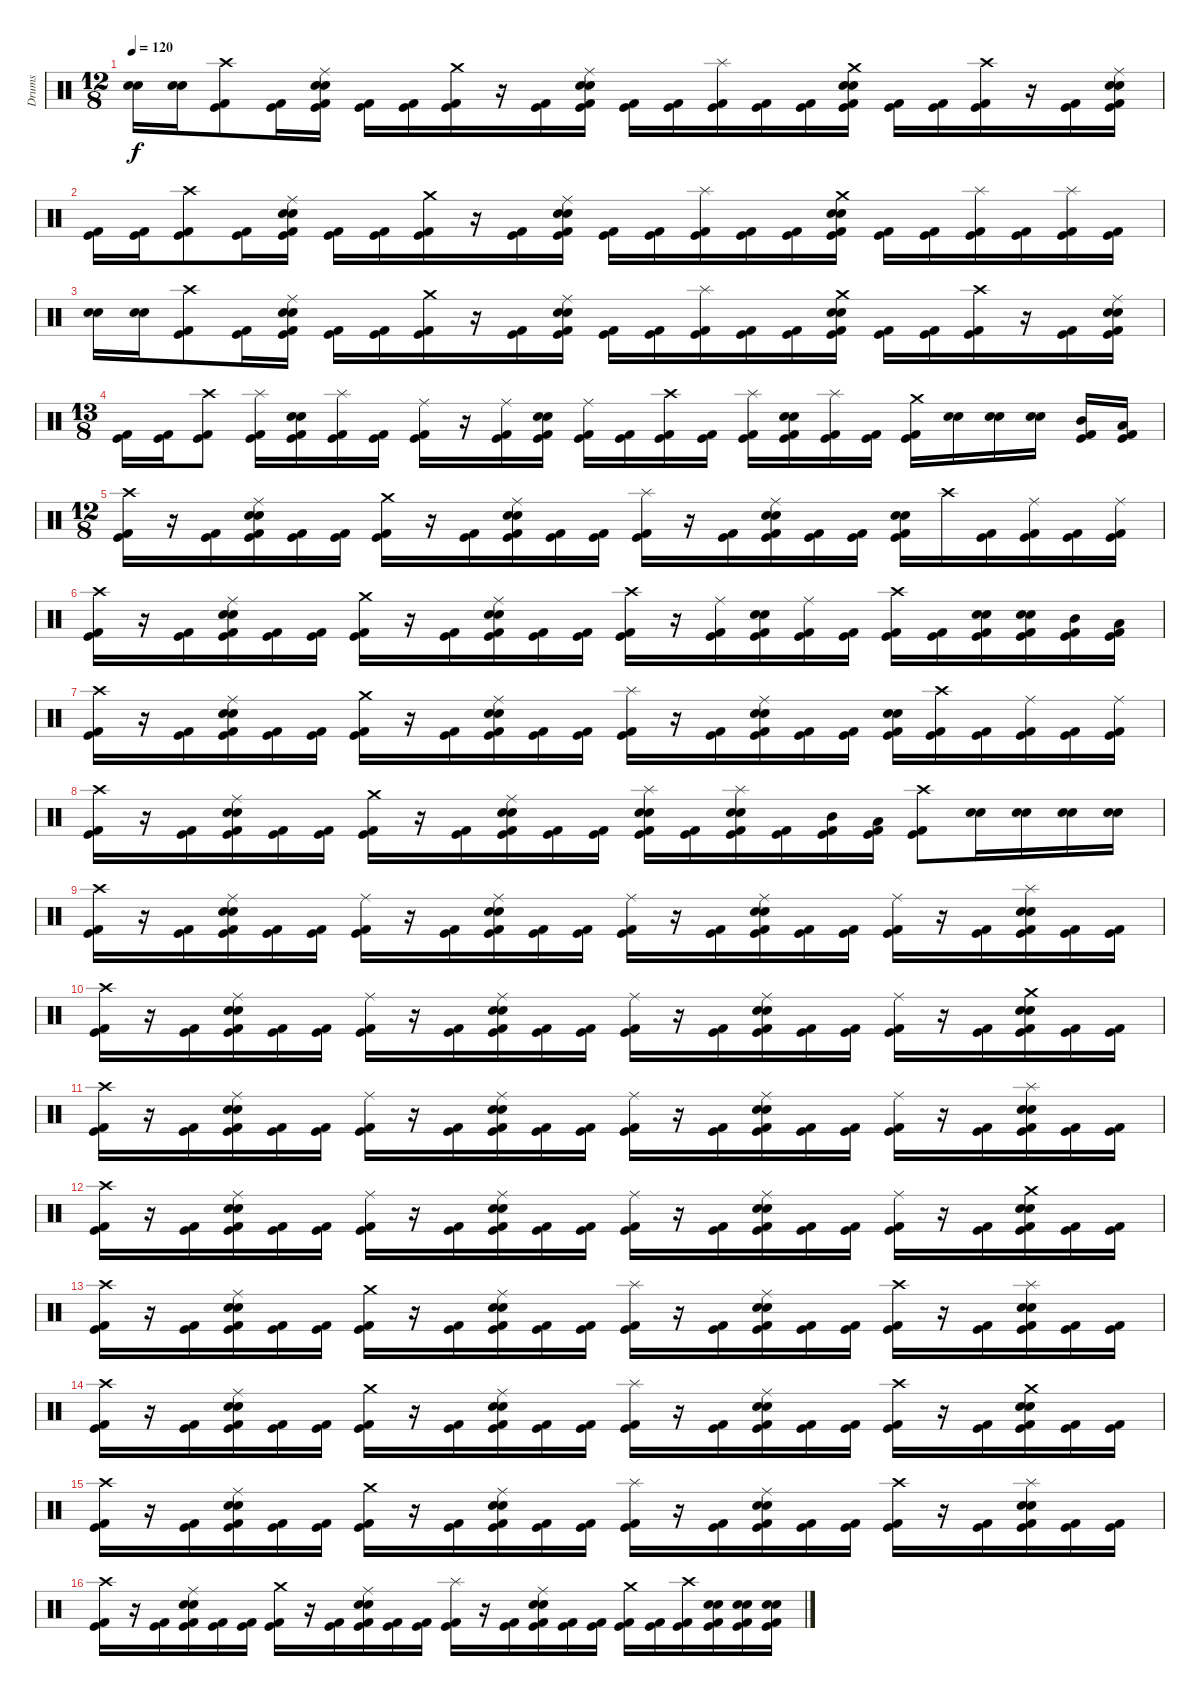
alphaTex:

\track ("Drums" "Drums") {instrument percussion}
\staff {score}
\articulation defaults
\ts (12 8)
\tempo 120
\clef neutral
\ks c
("Electric Snare (hit)" "Snare (hit) 2").16{dy f} ("Electric Snare (hit)" "Snare (hit) 2").16 ("Crash high (hit)" "Kick (hit) 2" "Kick (hit)").8 ("Kick (hit) 2" "Kick (hit)").16 ("Ride (middle)" "Electric Snare (hit)" "Snare (hit) 2" "Kick (hit) 2" "Kick (hit)").16 ("Kick (hit) 2" "Kick (hit)").16 ("Kick (hit) 2" "Kick (hit)").16 ("Crash medium (hit)" "Kick (hit) 2" "Kick (hit)").16 r.16 ("Kick (hit) 2" "Kick (hit)").16 ("Ride (middle)" "Electric Snare (hit)" "Snare (hit) 2" "Kick (hit) 2" "Kick (hit)").16 ("Kick (hit) 2" "Kick (hit)").16 ("Kick (hit) 2" "Kick (hit)").16 ("Splash (hit)" "Kick (hit) 2" "Kick (hit)").16 ("Kick (hit) 2" "Kick (hit)").16 ("Kick (hit) 2" "Kick (hit)").16 ("Crash medium (hit)" "Electric Snare (hit)" "Snare (hit) 2" "Kick (hit) 2" "Kick (hit)").16 ("Kick (hit) 2" "Kick (hit)").16 ("Kick (hit) 2" "Kick (hit)").16 ("Crash high (hit)" "Kick (hit) 2" "Kick (hit)").16 r.16 ("Kick (hit) 2" "Kick (hit)").16 ("Ride (middle)" "Electric Snare (hit)" "Snare (hit) 2" "Kick (hit) 2" "Kick (hit)").16 |
("Kick (hit) 2" "Kick (hit)").16 ("Kick (hit) 2" "Kick (hit)").16 ("Crash high (hit)" "Kick (hit) 2" "Kick (hit)").8 ("Kick (hit) 2" "Kick (hit)").16 ("Ride (middle)" "Electric Snare (hit)" "Snare (hit) 2" "Kick (hit) 2" "Kick (hit)").16 ("Kick (hit) 2" "Kick (hit)").16 ("Kick (hit) 2" "Kick (hit)").16 ("Crash medium (hit)" "Kick (hit) 2" "Kick (hit)").16 r.16 ("Kick (hit) 2" "Kick (hit)").16 ("Ride (middle)" "Electric Snare (hit)" "Snare (hit) 2" "Kick (hit) 2" "Kick (hit)").16 ("Kick (hit) 2" "Kick (hit)").16 ("Kick (hit) 2" "Kick (hit)").16 ("Splash (hit)" "Kick (hit) 2" "Kick (hit)").16 ("Kick (hit) 2" "Kick (hit)").16 ("Kick (hit) 2" "Kick (hit)").16 ("Crash medium (hit)" "Electric Snare (hit)" "Snare (hit) 2" "Kick (hit) 2" "Kick (hit)").16 ("Kick (hit) 2" "Kick (hit)").16 ("Kick (hit) 2" "Kick (hit)").16 ("Splash (hit)" "Kick (hit) 2" "Kick (hit)").16 ("Kick (hit) 2" "Kick (hit)").16 ("Splash (hit)" "Kick (hit) 2" "Kick (hit)").16 ("Kick (hit) 2" "Kick (hit)").16 |
("Electric Snare (hit)" "Snare (hit) 2").16 ("Electric Snare (hit)" "Snare (hit) 2").16 ("Crash high (hit)" "Kick (hit) 2" "Kick (hit)").8 ("Kick (hit) 2" "Kick (hit)").16 ("Ride (middle)" "Electric Snare (hit)" "Snare (hit) 2" "Kick (hit) 2" "Kick (hit)").16 ("Kick (hit) 2" "Kick (hit)").16 ("Kick (hit) 2" "Kick (hit)").16 ("Crash medium (hit)" "Kick (hit) 2" "Kick (hit)").16 r.16 ("Kick (hit) 2" "Kick (hit)").16 ("Ride (middle)" "Electric Snare (hit)" "Snare (hit) 2" "Kick (hit) 2" "Kick (hit)").16 ("Kick (hit) 2" "Kick (hit)").16 ("Kick (hit) 2" "Kick (hit)").16 ("Splash (hit)" "Kick (hit) 2" "Kick (hit)").16 ("Kick (hit) 2" "Kick (hit)").16 ("Kick (hit) 2" "Kick (hit)").16 ("Crash medium (hit)" "Electric Snare (hit)" "Snare (hit) 2" "Kick (hit) 2" "Kick (hit)").16 ("Kick (hit) 2" "Kick (hit)").16 ("Kick (hit) 2" "Kick (hit)").16 ("Crash high (hit)" "Kick (hit) 2" "Kick (hit)").16 r.16 ("Kick (hit) 2" "Kick (hit)").16 ("Ride (middle)" "Electric Snare (hit)" "Snare (hit) 2" "Kick (hit) 2" "Kick (hit)").16 |
\ts (13 8)
("Kick (hit) 2" "Kick (hit)").16 ("Kick (hit) 2" "Kick (hit)").16 ("Crash high (hit)" "Kick (hit) 2" "Kick (hit)").8 ("Splash (hit)" "Kick (hit) 2" "Kick (hit)").16 ("Electric Snare (hit)" "Snare (hit) 2" "Kick (hit) 2" "Kick (hit)").16 ("Splash (hit)" "Kick (hit) 2" "Kick (hit)").16 ("Kick (hit) 2" "Kick (hit)").16 ("Ride (middle)" "Kick (hit) 2" "Kick (hit)").16 r.16 ("Ride (middle)" "Kick (hit) 2" "Kick (hit)").16 ("Electric Snare (hit)" "Snare (hit) 2" "Kick (hit) 2" "Kick (hit)").16 ("Ride (middle)" "Kick (hit) 2" "Kick (hit)").16 ("Kick (hit) 2" "Kick (hit)").16 ("Crash high (hit)" "Kick (hit) 2" "Kick (hit)").16 ("Kick (hit) 2" "Kick (hit)").16 ("Splash (hit)" "Kick (hit) 2" "Kick (hit)").16 ("Electric Snare (hit)" "Snare (hit) 2" "Kick (hit) 2" "Kick (hit)").16 ("Splash (hit)" "Kick (hit) 2" "Kick (hit)").16 ("Kick (hit) 2" "Kick (hit)").16 ("Crash medium (hit)" "Kick (hit) 2" "Kick (hit)").16 ("Electric Snare (hit)" "Snare (hit) 2").16 ("Electric Snare (hit)" "Snare (hit) 2").16 ("Electric Snare (hit)" "Snare (hit) 2").16 ("Mid Tom (hit)" "Kick (hit) 2" "Kick (hit)").16 ("Low Tom (hit)" "Kick (hit) 2" "Kick (hit)").16 |
\ts (12 8)
("Crash high (hit)" "Kick (hit) 2" "Kick (hit)").16 r.16 ("Kick (hit) 2" "Kick (hit)").16 ("Ride (middle)" "Electric Snare (hit)" "Snare (hit) 2" "Kick (hit) 2" "Kick (hit)").16 ("Kick (hit) 2" "Kick (hit)").16 ("Kick (hit) 2" "Kick (hit)").16 ("Crash medium (hit)" "Kick (hit) 2" "Kick (hit)").16 r.16 ("Kick (hit) 2" "Kick (hit)").16 ("Ride (middle)" "Electric Snare (hit)" "Snare (hit) 2" "Kick (hit) 2" "Kick (hit)").16 ("Kick (hit) 2" "Kick (hit)").16 ("Kick (hit) 2" "Kick (hit)").16 ("Splash (hit)" "Kick (hit) 2" "Kick (hit)").16 r.16 ("Kick (hit) 2" "Kick (hit)").16 ("Ride (middle)" "Electric Snare (hit)" "Snare (hit) 2" "Kick (hit) 2" "Kick (hit)").16 ("Kick (hit) 2" "Kick (hit)").16 ("Kick (hit) 2" "Kick (hit)").16 ("Electric Snare (hit)" "Snare (hit) 2" "Kick (hit) 2" "Kick (hit)").16 "Crash high (hit)".16 ("Kick (hit) 2" "Kick (hit)").16 ("Ride (middle)" "Kick (hit) 2" "Kick (hit)").16 ("Kick (hit) 2" "Kick (hit)").16 ("Ride (middle)" "Kick (hit) 2" "Kick (hit)").16 |
("Crash high (hit)" "Kick (hit) 2" "Kick (hit)").16 r.16 ("Kick (hit) 2" "Kick (hit)").16 ("Ride (middle)" "Electric Snare (hit)" "Snare (hit) 2" "Kick (hit) 2" "Kick (hit)").16 ("Kick (hit) 2" "Kick (hit)").16 ("Kick (hit) 2" "Kick (hit)").16 ("Crash medium (hit)" "Kick (hit) 2" "Kick (hit)").16 r.16 ("Kick (hit) 2" "Kick (hit)").16 ("Ride (middle)" "Electric Snare (hit)" "Snare (hit) 2" "Kick (hit) 2" "Kick (hit)").16 ("Kick (hit) 2" "Kick (hit)").16 ("Kick (hit) 2" "Kick (hit)").16 ("Crash high (hit)" "Kick (hit) 2" "Kick (hit)").16 r.16 ("Ride (middle)" "Kick (hit) 2" "Kick (hit)").16 ("Electric Snare (hit)" "Snare (hit) 2" "Kick (hit) 2" "Kick (hit)").16 ("Ride (middle)" "Kick (hit) 2" "Kick (hit)").16 ("Kick (hit) 2" "Kick (hit)").16 ("Crash high (hit)" "Kick (hit) 2" "Kick (hit)").16 ("Kick (hit) 2" "Kick (hit)").16 ("Electric Snare (hit)" "Snare (hit) 2" "Kick (hit) 2" "Kick (hit)").16 ("Electric Snare (hit)" "Snare (hit) 2" "Kick (hit) 2" "Kick (hit)").16 ("Mid Tom (hit)" "Kick (hit) 2" "Kick (hit)").16 ("Low Tom (hit)" "Kick (hit) 2" "Kick (hit)").16 |
("Crash high (hit)" "Kick (hit) 2" "Kick (hit)").16 r.16 ("Kick (hit) 2" "Kick (hit)").16 ("Ride (middle)" "Electric Snare (hit)" "Snare (hit) 2" "Kick (hit) 2" "Kick (hit)").16 ("Kick (hit) 2" "Kick (hit)").16 ("Kick (hit) 2" "Kick (hit)").16 ("Crash medium (hit)" "Kick (hit) 2" "Kick (hit)").16 r.16 ("Kick (hit) 2" "Kick (hit)").16 ("Ride (middle)" "Electric Snare (hit)" "Snare (hit) 2" "Kick (hit) 2" "Kick (hit)").16 ("Kick (hit) 2" "Kick (hit)").16 ("Kick (hit) 2" "Kick (hit)").16 ("Splash (hit)" "Kick (hit) 2" "Kick (hit)").16 r.16 ("Kick (hit) 2" "Kick (hit)").16 ("Ride (middle)" "Electric Snare (hit)" "Snare (hit) 2" "Kick (hit) 2" "Kick (hit)").16 ("Kick (hit) 2" "Kick (hit)").16 ("Kick (hit) 2" "Kick (hit)").16 ("Electric Snare (hit)" "Snare (hit) 2" "Kick (hit) 2" "Kick (hit)").16 ("Crash high (hit)" "Kick (hit) 2" "Kick (hit)").16 ("Kick (hit) 2" "Kick (hit)").16 ("Ride (middle)" "Kick (hit) 2" "Kick (hit)").16 ("Kick (hit) 2" "Kick (hit)").16 ("Ride (middle)" "Kick (hit) 2" "Kick (hit)").16 |
("Crash high (hit)" "Kick (hit) 2" "Kick (hit)").16 r.16 ("Kick (hit) 2" "Kick (hit)").16 ("Ride (middle)" "Electric Snare (hit)" "Snare (hit) 2" "Kick (hit) 2" "Kick (hit)").16 ("Kick (hit) 2" "Kick (hit)").16 ("Kick (hit) 2" "Kick (hit)").16 ("Crash medium (hit)" "Kick (hit) 2" "Kick (hit)").16 r.16 ("Kick (hit) 2" "Kick (hit)").16 ("Ride (middle)" "Electric Snare (hit)" "Snare (hit) 2" "Kick (hit) 2" "Kick (hit)").16 ("Kick (hit) 2" "Kick (hit)").16 ("Kick (hit) 2" "Kick (hit)").16 ("Electric Snare (hit)" "Snare (hit) 2" "Splash (hit)" "Kick (hit) 2" "Kick (hit)").16 ("Kick (hit) 2" "Kick (hit)").16 ("Electric Snare (hit)" "Snare (hit) 2" "Splash (hit)" "Kick (hit) 2" "Kick (hit)").16 ("Kick (hit) 2" "Kick (hit)").16 ("Mid Tom (hit)" "Kick (hit) 2" "Kick (hit)").16 ("Low Tom (hit)" "Kick (hit) 2" "Kick (hit)").16 ("Crash high (hit)" "Kick (hit) 2" "Kick (hit)").8 ("Electric Snare (hit)" "Snare (hit) 2").16 ("Electric Snare (hit)" "Snare (hit) 2").16 ("Electric Snare (hit)" "Snare (hit) 2").16 ("Electric Snare (hit)" "Snare (hit) 2").16 |
("Crash high (hit)" "Kick (hit) 2" "Kick (hit)").16 r.16 ("Kick (hit) 2" "Kick (hit)").16 ("Ride (middle)" "Electric Snare (hit)" "Snare (hit) 2" "Kick (hit) 2" "Kick (hit)").16 ("Kick (hit) 2" "Kick (hit)").16 ("Kick (hit) 2" "Kick (hit)").16 ("Ride (middle)" "Kick (hit) 2" "Kick (hit)").16 r.16 ("Kick (hit) 2" "Kick (hit)").16 ("Ride (middle)" "Electric Snare (hit)" "Snare (hit) 2" "Kick (hit) 2" "Kick (hit)").16 ("Kick (hit) 2" "Kick (hit)").16 ("Kick (hit) 2" "Kick (hit)").16 ("Ride (middle)" "Kick (hit) 2" "Kick (hit)").16 r.16 ("Kick (hit) 2" "Kick (hit)").16 ("Ride (middle)" "Electric Snare (hit)" "Snare (hit) 2" "Kick (hit) 2" "Kick (hit)").16 ("Kick (hit) 2" "Kick (hit)").16 ("Kick (hit) 2" "Kick (hit)").16 ("Ride (middle)" "Kick (hit) 2" "Kick (hit)").16 r.16 ("Kick (hit) 2" "Kick (hit)").16 ("Splash (hit)" "Electric Snare (hit)" "Snare (hit) 2" "Kick (hit) 2" "Kick (hit)").16 ("Kick (hit) 2" "Kick (hit)").16 ("Kick (hit) 2" "Kick (hit)").16 |
("Crash high (hit)" "Kick (hit) 2" "Kick (hit)").16 r.16 ("Kick (hit) 2" "Kick (hit)").16 ("Ride (middle)" "Electric Snare (hit)" "Snare (hit) 2" "Kick (hit) 2" "Kick (hit)").16 ("Kick (hit) 2" "Kick (hit)").16 ("Kick (hit) 2" "Kick (hit)").16 ("Ride (middle)" "Kick (hit) 2" "Kick (hit)").16 r.16 ("Kick (hit) 2" "Kick (hit)").16 ("Ride (middle)" "Electric Snare (hit)" "Snare (hit) 2" "Kick (hit) 2" "Kick (hit)").16 ("Kick (hit) 2" "Kick (hit)").16 ("Kick (hit) 2" "Kick (hit)").16 ("Ride (middle)" "Kick (hit) 2" "Kick (hit)").16 r.16 ("Kick (hit) 2" "Kick (hit)").16 ("Ride (middle)" "Electric Snare (hit)" "Snare (hit) 2" "Kick (hit) 2" "Kick (hit)").16 ("Kick (hit) 2" "Kick (hit)").16 ("Kick (hit) 2" "Kick (hit)").16 ("Ride (middle)" "Kick (hit) 2" "Kick (hit)").16 r.16 ("Kick (hit) 2" "Kick (hit)").16 ("Crash medium (hit)" "Electric Snare (hit)" "Snare (hit) 2" "Kick (hit) 2" "Kick (hit)").16 ("Kick (hit) 2" "Kick (hit)").16 ("Kick (hit) 2" "Kick (hit)").16 |
("Crash high (hit)" "Kick (hit) 2" "Kick (hit)").16 r.16 ("Kick (hit) 2" "Kick (hit)").16 ("Ride (middle)" "Electric Snare (hit)" "Snare (hit) 2" "Kick (hit) 2" "Kick (hit)").16 ("Kick (hit) 2" "Kick (hit)").16 ("Kick (hit) 2" "Kick (hit)").16 ("Ride (middle)" "Kick (hit) 2" "Kick (hit)").16 r.16 ("Kick (hit) 2" "Kick (hit)").16 ("Ride (middle)" "Electric Snare (hit)" "Snare (hit) 2" "Kick (hit) 2" "Kick (hit)").16 ("Kick (hit) 2" "Kick (hit)").16 ("Kick (hit) 2" "Kick (hit)").16 ("Ride (middle)" "Kick (hit) 2" "Kick (hit)").16 r.16 ("Kick (hit) 2" "Kick (hit)").16 ("Ride (middle)" "Electric Snare (hit)" "Snare (hit) 2" "Kick (hit) 2" "Kick (hit)").16 ("Kick (hit) 2" "Kick (hit)").16 ("Kick (hit) 2" "Kick (hit)").16 ("Ride (middle)" "Kick (hit) 2" "Kick (hit)").16 r.16 ("Kick (hit) 2" "Kick (hit)").16 ("Splash (hit)" "Electric Snare (hit)" "Snare (hit) 2" "Kick (hit) 2" "Kick (hit)").16 ("Kick (hit) 2" "Kick (hit)").16 ("Kick (hit) 2" "Kick (hit)").16 |
("Crash high (hit)" "Kick (hit) 2" "Kick (hit)").16 r.16 ("Kick (hit) 2" "Kick (hit)").16 ("Ride (middle)" "Electric Snare (hit)" "Snare (hit) 2" "Kick (hit) 2" "Kick (hit)").16 ("Kick (hit) 2" "Kick (hit)").16 ("Kick (hit) 2" "Kick (hit)").16 ("Ride (middle)" "Kick (hit) 2" "Kick (hit)").16 r.16 ("Kick (hit) 2" "Kick (hit)").16 ("Ride (middle)" "Electric Snare (hit)" "Snare (hit) 2" "Kick (hit) 2" "Kick (hit)").16 ("Kick (hit) 2" "Kick (hit)").16 ("Kick (hit) 2" "Kick (hit)").16 ("Ride (middle)" "Kick (hit) 2" "Kick (hit)").16 r.16 ("Kick (hit) 2" "Kick (hit)").16 ("Ride (middle)" "Electric Snare (hit)" "Snare (hit) 2" "Kick (hit) 2" "Kick (hit)").16 ("Kick (hit) 2" "Kick (hit)").16 ("Kick (hit) 2" "Kick (hit)").16 ("Ride (middle)" "Kick (hit) 2" "Kick (hit)").16 r.16 ("Kick (hit) 2" "Kick (hit)").16 ("Crash medium (hit)" "Electric Snare (hit)" "Snare (hit) 2" "Kick (hit) 2" "Kick (hit)").16 ("Kick (hit) 2" "Kick (hit)").16 ("Kick (hit) 2" "Kick (hit)").16 |
("Crash high (hit)" "Kick (hit) 2" "Kick (hit)").16 r.16 ("Kick (hit) 2" "Kick (hit)").16 ("Ride (middle)" "Electric Snare (hit)" "Snare (hit) 2" "Kick (hit) 2" "Kick (hit)").16 ("Kick (hit) 2" "Kick (hit)").16 ("Kick (hit) 2" "Kick (hit)").16 ("Crash medium (hit)" "Kick (hit) 2" "Kick (hit)").16 r.16 ("Kick (hit) 2" "Kick (hit)").16 ("Ride (middle)" "Electric Snare (hit)" "Snare (hit) 2" "Kick (hit) 2" "Kick (hit)").16 ("Kick (hit) 2" "Kick (hit)").16 ("Kick (hit) 2" "Kick (hit)").16 ("Splash (hit)" "Kick (hit) 2" "Kick (hit)").16 r.16 ("Kick (hit) 2" "Kick (hit)").16 ("Ride (middle)" "Electric Snare (hit)" "Snare (hit) 2" "Kick (hit) 2" "Kick (hit)").16 ("Kick (hit) 2" "Kick (hit)").16 ("Kick (hit) 2" "Kick (hit)").16 ("Crash high (hit)" "Kick (hit) 2" "Kick (hit)").16 r.16 ("Kick (hit) 2" "Kick (hit)").16 ("Splash (hit)" "Electric Snare (hit)" "Snare (hit) 2" "Kick (hit) 2" "Kick (hit)").16 ("Kick (hit) 2" "Kick (hit)").16 ("Kick (hit) 2" "Kick (hit)").16 |
("Crash high (hit)" "Kick (hit) 2" "Kick (hit)").16 r.16 ("Kick (hit) 2" "Kick (hit)").16 ("Ride (middle)" "Electric Snare (hit)" "Snare (hit) 2" "Kick (hit) 2" "Kick (hit)").16 ("Kick (hit) 2" "Kick (hit)").16 ("Kick (hit) 2" "Kick (hit)").16 ("Crash medium (hit)" "Kick (hit) 2" "Kick (hit)").16 r.16 ("Kick (hit) 2" "Kick (hit)").16 ("Ride (middle)" "Electric Snare (hit)" "Snare (hit) 2" "Kick (hit) 2" "Kick (hit)").16 ("Kick (hit) 2" "Kick (hit)").16 ("Kick (hit) 2" "Kick (hit)").16 ("Splash (hit)" "Kick (hit) 2" "Kick (hit)").16 r.16 ("Kick (hit) 2" "Kick (hit)").16 ("Ride (middle)" "Electric Snare (hit)" "Snare (hit) 2" "Kick (hit) 2" "Kick (hit)").16 ("Kick (hit) 2" "Kick (hit)").16 ("Kick (hit) 2" "Kick (hit)").16 ("Crash high (hit)" "Kick (hit) 2" "Kick (hit)").16 r.16 ("Kick (hit) 2" "Kick (hit)").16 ("Crash medium (hit)" "Electric Snare (hit)" "Snare (hit) 2" "Kick (hit) 2" "Kick (hit)").16 ("Kick (hit) 2" "Kick (hit)").16 ("Kick (hit) 2" "Kick (hit)").16 |
("Crash high (hit)" "Kick (hit) 2" "Kick (hit)").16 r.16 ("Kick (hit) 2" "Kick (hit)").16 ("Ride (middle)" "Electric Snare (hit)" "Snare (hit) 2" "Kick (hit) 2" "Kick (hit)").16 ("Kick (hit) 2" "Kick (hit)").16 ("Kick (hit) 2" "Kick (hit)").16 ("Crash medium (hit)" "Kick (hit) 2" "Kick (hit)").16 r.16 ("Kick (hit) 2" "Kick (hit)").16 ("Ride (middle)" "Electric Snare (hit)" "Snare (hit) 2" "Kick (hit) 2" "Kick (hit)").16 ("Kick (hit) 2" "Kick (hit)").16 ("Kick (hit) 2" "Kick (hit)").16 ("Splash (hit)" "Kick (hit) 2" "Kick (hit)").16 r.16 ("Kick (hit) 2" "Kick (hit)").16 ("Ride (middle)" "Electric Snare (hit)" "Snare (hit) 2" "Kick (hit) 2" "Kick (hit)").16 ("Kick (hit) 2" "Kick (hit)").16 ("Kick (hit) 2" "Kick (hit)").16 ("Crash high (hit)" "Kick (hit) 2" "Kick (hit)").16 r.16 ("Kick (hit) 2" "Kick (hit)").16 ("Splash (hit)" "Electric Snare (hit)" "Snare (hit) 2" "Kick (hit) 2" "Kick (hit)").16 ("Kick (hit) 2" "Kick (hit)").16 ("Kick (hit) 2" "Kick (hit)").16 |
("Crash high (hit)" "Kick (hit) 2" "Kick (hit)").16 r.16 ("Kick (hit) 2" "Kick (hit)").16 ("Ride (middle)" "Electric Snare (hit)" "Snare (hit) 2" "Kick (hit) 2" "Kick (hit)").16 ("Kick (hit) 2" "Kick (hit)").16 ("Kick (hit) 2" "Kick (hit)").16 ("Crash medium (hit)" "Kick (hit) 2" "Kick (hit)").16 r.16 ("Kick (hit) 2" "Kick (hit)").16 ("Ride (middle)" "Electric Snare (hit)" "Snare (hit) 2" "Kick (hit) 2" "Kick (hit)").16 ("Kick (hit) 2" "Kick (hit)").16 ("Kick (hit) 2" "Kick (hit)").16 ("Splash (hit)" "Kick (hit) 2" "Kick (hit)").16 r.16 ("Kick (hit) 2" "Kick (hit)").16 ("Ride (middle)" "Electric Snare (hit)" "Snare (hit) 2" "Kick (hit) 2" "Kick (hit)").16 ("Kick (hit) 2" "Kick (hit)").16 ("Kick (hit) 2" "Kick (hit)").16 ("Crash medium (hit)" "Kick (hit) 2" "Kick (hit)").16 ("Kick (hit) 2" "Kick (hit)").16 ("Crash high (hit)" "Kick (hit) 2" "Kick (hit)").16 ("Electric Snare (hit)" "Snare (hit) 2" "Kick (hit) 2" "Kick (hit)").16 ("Electric Snare (hit)" "Snare (hit) 2" "Kick (hit) 2" "Kick (hit)").16 ("Electric Snare (hit)" "Snare (hit) 2" "Kick (hit) 2" "Kick (hit)").16
